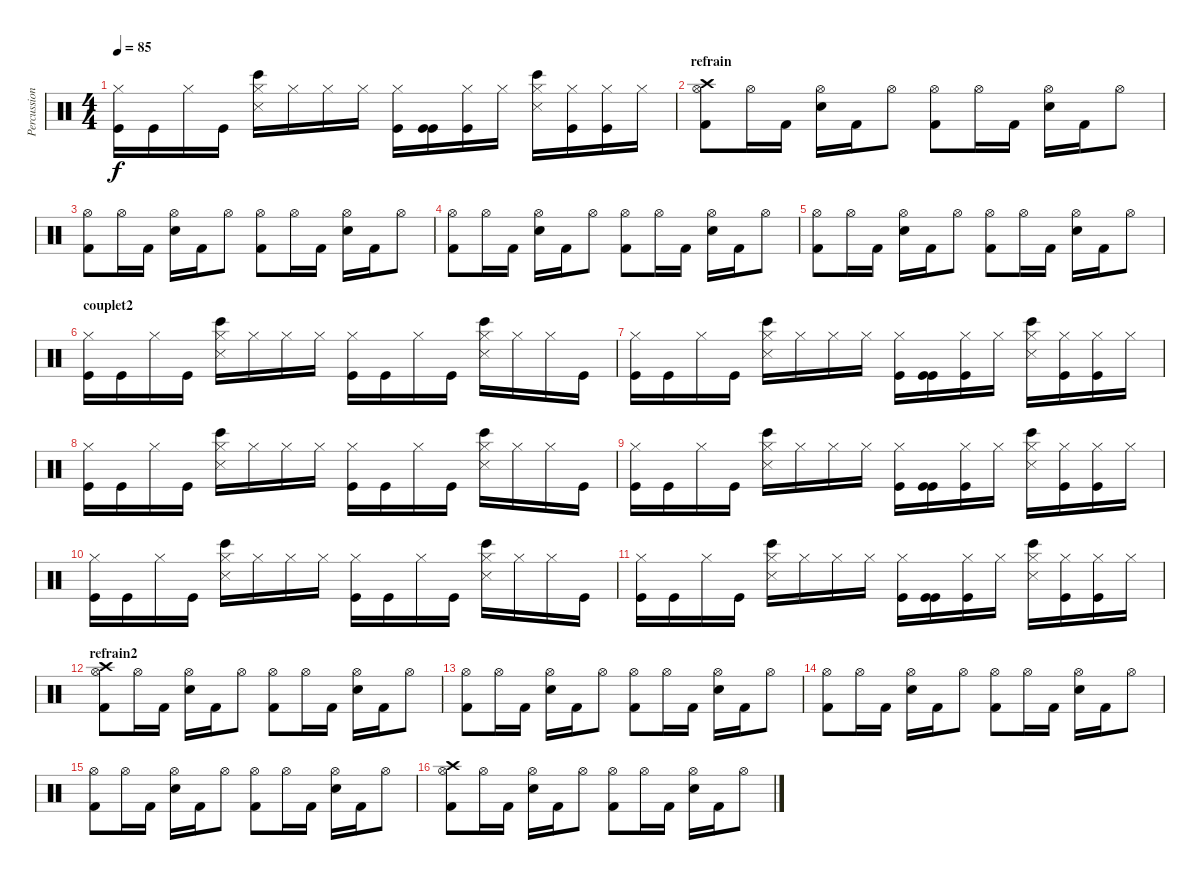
\track ("Percussions" "Percussion") {instrument percussion}
\staff {score}
\articulation defaults
\ts (4 4)
\tempo 85
\clef neutral
\ks c
("Kick (hit)" "Hi-Hat (closed)").16{dy f} "Kick (hit)".16 "Hi-Hat (closed)".16 "Kick (hit)".16 ("Snare (side stick) 3" "Bongo High (hit)" "Hi-Hat (closed)").16 "Hi-Hat (closed)".16 "Hi-Hat (closed)".16 "Hi-Hat (closed)".16 ("Kick (hit)" "Hi-Hat (closed)").16 ("Kick (hit)" "Kick (hit)").16 ("Hi-Hat (closed)" "Kick (hit)").16 "Hi-Hat (closed)".16 ("Bongo High (hit)" "Snare (side stick) 3" "Hi-Hat (closed)").16 ("Hi-Hat (closed)" "Kick (hit)").16 ("Hi-Hat (closed)" "Kick (hit)").16 "Hi-Hat (closed)".16 |
\section ("" "refrain")
("Crash high (hit)" "Kick (hit) 2" "Hi-Hat (open)").8 "Hi-Hat (open)".16 "Kick (hit) 2".16 ("Electric Snare (hit)" "Hi-Hat (open)").16 "Kick (hit) 2".16 "Hi-Hat (open)".8 ("Hi-Hat (open)" "Kick (hit) 2").8 "Hi-Hat (open)".16 "Kick (hit) 2".16 ("Electric Snare (hit)" "Hi-Hat (open)").16 "Kick (hit) 2".16 "Hi-Hat (open)".8 |
("Kick (hit) 2" "Hi-Hat (open)").8 "Hi-Hat (open)".16 "Kick (hit) 2".16 ("Electric Snare (hit)" "Hi-Hat (open)").16 "Kick (hit) 2".16 "Hi-Hat (open)".8 ("Hi-Hat (open)" "Kick (hit) 2").8 "Hi-Hat (open)".16 "Kick (hit) 2".16 ("Electric Snare (hit)" "Hi-Hat (open)").16 "Kick (hit) 2".16 "Hi-Hat (open)".8 |
("Kick (hit) 2" "Hi-Hat (open)").8 "Hi-Hat (open)".16 "Kick (hit) 2".16 ("Electric Snare (hit)" "Hi-Hat (open)").16 "Kick (hit) 2".16 "Hi-Hat (open)".8 ("Hi-Hat (open)" "Kick (hit) 2").8 "Hi-Hat (open)".16 "Kick (hit) 2".16 ("Electric Snare (hit)" "Hi-Hat (open)").16 "Kick (hit) 2".16 "Hi-Hat (open)".8 |
("Kick (hit) 2" "Hi-Hat (open)").8 "Hi-Hat (open)".16 "Kick (hit) 2".16 ("Electric Snare (hit)" "Hi-Hat (open)").16 "Kick (hit) 2".16 "Hi-Hat (open)".8 ("Hi-Hat (open)" "Kick (hit) 2").8 "Hi-Hat (open)".16 "Kick (hit) 2".16 ("Electric Snare (hit)" "Hi-Hat (open)").16 "Kick (hit) 2".16 "Hi-Hat (open)".8 |
\section ("" "couplet2")
("Kick (hit)" "Hi-Hat (closed)").16 "Kick (hit)".16 "Hi-Hat (closed)".16 "Kick (hit)".16 ("Snare (side stick) 3" "Bongo High (hit)" "Hi-Hat (closed)").16 "Hi-Hat (closed)".16 "Hi-Hat (closed)".16 "Hi-Hat (closed)".16 ("Kick (hit)" "Hi-Hat (closed)").16 "Kick (hit)".16 "Hi-Hat (closed)".16 "Kick (hit)".16 ("Bongo High (hit)" "Snare (side stick) 3" "Hi-Hat (closed)").16 "Hi-Hat (closed)".16 "Hi-Hat (closed)".16 "Kick (hit)".16 |
("Kick (hit)" "Hi-Hat (closed)").16 "Kick (hit)".16 "Hi-Hat (closed)".16 "Kick (hit)".16 ("Snare (side stick) 3" "Bongo High (hit)" "Hi-Hat (closed)").16 "Hi-Hat (closed)".16 "Hi-Hat (closed)".16 "Hi-Hat (closed)".16 ("Kick (hit)" "Hi-Hat (closed)").16 ("Kick (hit)" "Kick (hit)").16 ("Hi-Hat (closed)" "Kick (hit)").16 "Hi-Hat (closed)".16 ("Bongo High (hit)" "Snare (side stick) 3" "Hi-Hat (closed)").16 ("Hi-Hat (closed)" "Kick (hit)").16 ("Hi-Hat (closed)" "Kick (hit)").16 "Hi-Hat (closed)".16 |
("Kick (hit)" "Hi-Hat (closed)").16 "Kick (hit)".16 "Hi-Hat (closed)".16 "Kick (hit)".16 ("Snare (side stick) 3" "Bongo High (hit)" "Hi-Hat (closed)").16 "Hi-Hat (closed)".16 "Hi-Hat (closed)".16 "Hi-Hat (closed)".16 ("Kick (hit)" "Hi-Hat (closed)").16 "Kick (hit)".16 "Hi-Hat (closed)".16 "Kick (hit)".16 ("Bongo High (hit)" "Snare (side stick) 3" "Hi-Hat (closed)").16 "Hi-Hat (closed)".16 "Hi-Hat (closed)".16 "Kick (hit)".16 |
("Kick (hit)" "Hi-Hat (closed)").16 "Kick (hit)".16 "Hi-Hat (closed)".16 "Kick (hit)".16 ("Snare (side stick) 3" "Bongo High (hit)" "Hi-Hat (closed)").16 "Hi-Hat (closed)".16 "Hi-Hat (closed)".16 "Hi-Hat (closed)".16 ("Kick (hit)" "Hi-Hat (closed)").16 ("Kick (hit)" "Kick (hit)").16 ("Hi-Hat (closed)" "Kick (hit)").16 "Hi-Hat (closed)".16 ("Bongo High (hit)" "Snare (side stick) 3" "Hi-Hat (closed)").16 ("Hi-Hat (closed)" "Kick (hit)").16 ("Hi-Hat (closed)" "Kick (hit)").16 "Hi-Hat (closed)".16 |
("Kick (hit)" "Hi-Hat (closed)").16 "Kick (hit)".16 "Hi-Hat (closed)".16 "Kick (hit)".16 ("Snare (side stick) 3" "Bongo High (hit)" "Hi-Hat (closed)").16 "Hi-Hat (closed)".16 "Hi-Hat (closed)".16 "Hi-Hat (closed)".16 ("Kick (hit)" "Hi-Hat (closed)").16 "Kick (hit)".16 "Hi-Hat (closed)".16 "Kick (hit)".16 ("Bongo High (hit)" "Snare (side stick) 3" "Hi-Hat (closed)").16 "Hi-Hat (closed)".16 "Hi-Hat (closed)".16 "Kick (hit)".16 |
("Kick (hit)" "Hi-Hat (closed)").16 "Kick (hit)".16 "Hi-Hat (closed)".16 "Kick (hit)".16 ("Snare (side stick) 3" "Bongo High (hit)" "Hi-Hat (closed)").16 "Hi-Hat (closed)".16 "Hi-Hat (closed)".16 "Hi-Hat (closed)".16 ("Kick (hit)" "Hi-Hat (closed)").16 ("Kick (hit)" "Kick (hit)").16 ("Hi-Hat (closed)" "Kick (hit)").16 "Hi-Hat (closed)".16 ("Bongo High (hit)" "Snare (side stick) 3" "Hi-Hat (closed)").16 ("Hi-Hat (closed)" "Kick (hit)").16 ("Hi-Hat (closed)" "Kick (hit)").16 "Hi-Hat (closed)".16 |
\section ("" "refrain2")
("Crash high (hit)" "Kick (hit) 2" "Hi-Hat (open)").8 "Hi-Hat (open)".16 "Kick (hit) 2".16 ("Electric Snare (hit)" "Hi-Hat (open)").16 "Kick (hit) 2".16 "Hi-Hat (open)".8 ("Hi-Hat (open)" "Kick (hit) 2").8 "Hi-Hat (open)".16 "Kick (hit) 2".16 ("Electric Snare (hit)" "Hi-Hat (open)").16 "Kick (hit) 2".16 "Hi-Hat (open)".8 |
("Kick (hit) 2" "Hi-Hat (open)").8 "Hi-Hat (open)".16 "Kick (hit) 2".16 ("Electric Snare (hit)" "Hi-Hat (open)").16 "Kick (hit) 2".16 "Hi-Hat (open)".8 ("Hi-Hat (open)" "Kick (hit) 2").8 "Hi-Hat (open)".16 "Kick (hit) 2".16 ("Electric Snare (hit)" "Hi-Hat (open)").16 "Kick (hit) 2".16 "Hi-Hat (open)".8 |
("Kick (hit) 2" "Hi-Hat (open)").8 "Hi-Hat (open)".16 "Kick (hit) 2".16 ("Electric Snare (hit)" "Hi-Hat (open)").16 "Kick (hit) 2".16 "Hi-Hat (open)".8 ("Hi-Hat (open)" "Kick (hit) 2").8 "Hi-Hat (open)".16 "Kick (hit) 2".16 ("Electric Snare (hit)" "Hi-Hat (open)").16 "Kick (hit) 2".16 "Hi-Hat (open)".8 |
("Kick (hit) 2" "Hi-Hat (open)").8 "Hi-Hat (open)".16 "Kick (hit) 2".16 ("Electric Snare (hit)" "Hi-Hat (open)").16 "Kick (hit) 2".16 "Hi-Hat (open)".8 ("Hi-Hat (open)" "Kick (hit) 2").8 "Hi-Hat (open)".16 "Kick (hit) 2".16 ("Electric Snare (hit)" "Hi-Hat (open)").16 "Kick (hit) 2".16 "Hi-Hat (open)".8 |
("Crash high (hit)" "Kick (hit) 2" "Hi-Hat (open)").8 "Hi-Hat (open)".16 "Kick (hit) 2".16 ("Electric Snare (hit)" "Hi-Hat (open)").16 "Kick (hit) 2".16 "Hi-Hat (open)".8 ("Hi-Hat (open)" "Kick (hit) 2").8 "Hi-Hat (open)".16 "Kick (hit) 2".16 ("Electric Snare (hit)" "Hi-Hat (open)").16 "Kick (hit) 2".16 "Hi-Hat (open)".8
